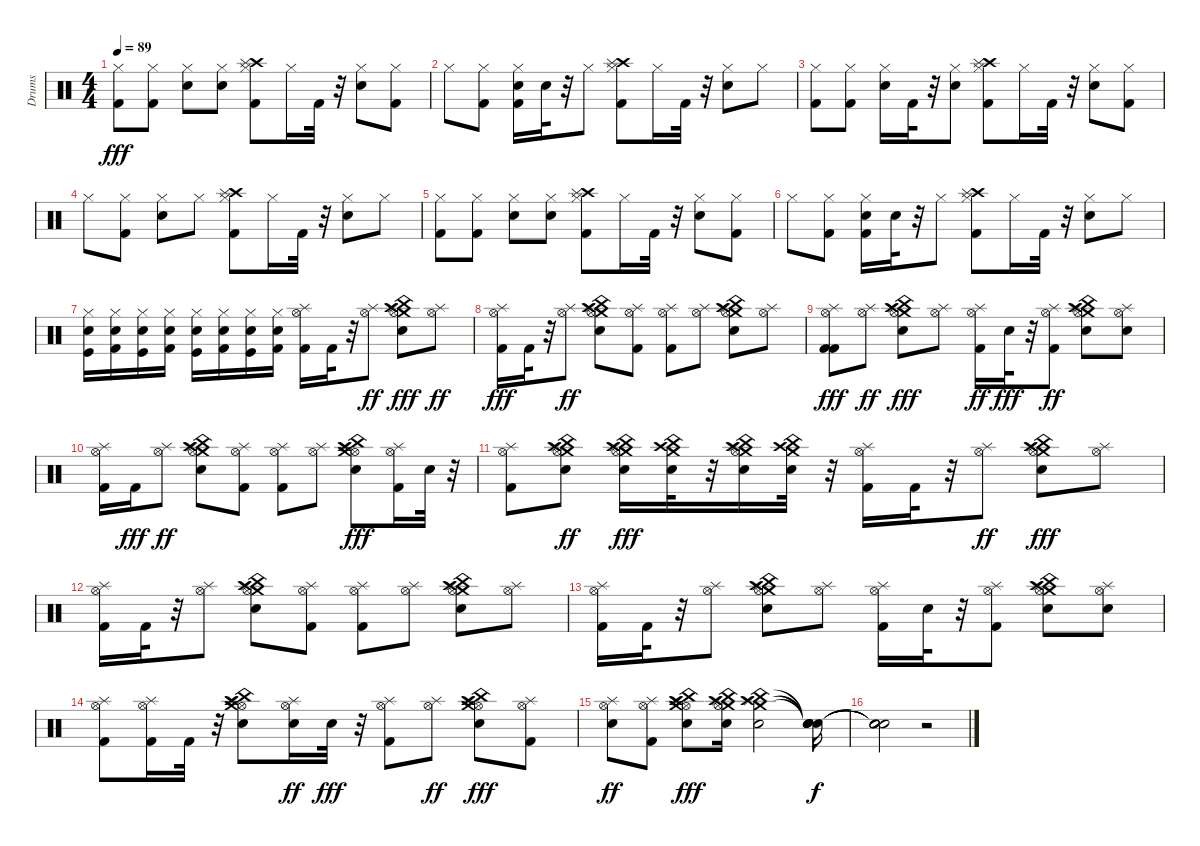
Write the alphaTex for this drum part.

\track ("Drums" "Drums") {instrument percussion}
\staff {score}
\articulation defaults
\ts (4 4)
\tempo 89
\clef neutral
\ks c
("Kick (hit) 2" "Hi-Hat (closed)").8{dy fff} ("Kick (hit) 2" "Hi-Hat (closed)").8 ("Snare (hit) 2" "Hi-Hat (closed)").8 ("Snare (hit) 2" "Hi-Hat (closed)").8 ("Crash high (hit)" "Splash (hit)" "Kick (hit) 2" "Hi-Hat (closed)").8 "Hi-Hat (closed)".16 "Kick (hit) 2".32 r.32 ("Snare (hit) 2" "Hi-Hat (closed)").8 ("Kick (hit) 2" "Hi-Hat (closed)").8 |
"Hi-Hat (closed)".8 ("Hi-Hat (closed)" "Kick (hit) 2").8 ("Snare (hit) 2" "Hi-Hat (closed)" "Kick (hit) 2").16 "Snare (hit) 2".32 r.32 "Hi-Hat (closed)".8 ("Crash high (hit)" "Splash (hit)" "Kick (hit) 2" "Hi-Hat (closed)").8 "Hi-Hat (closed)".16 "Kick (hit) 2".32 r.32 ("Snare (hit) 2" "Hi-Hat (closed)").8 "Hi-Hat (closed)".8 |
("Hi-Hat (closed)" "Kick (hit) 2").8 ("Kick (hit) 2" "Hi-Hat (closed)").8 ("Snare (hit) 2" "Hi-Hat (closed)").16 "Kick (hit) 2".32 r.32 ("Snare (hit) 2" "Hi-Hat (closed)").8 ("Crash high (hit)" "Splash (hit)" "Kick (hit) 2" "Hi-Hat (closed)").8 "Hi-Hat (closed)".16 "Kick (hit) 2".32 r.32 ("Snare (hit) 2" "Hi-Hat (closed)").8 ("Kick (hit) 2" "Hi-Hat (closed)").8 |
"Hi-Hat (closed)".8 ("Kick (hit) 2" "Hi-Hat (closed)").8 ("Hi-Hat (closed)" "Snare (hit) 2").8 "Hi-Hat (closed)".8 ("Crash high (hit)" "Splash (hit)" "Kick (hit) 2" "Hi-Hat (closed)").8 "Hi-Hat (closed)".16 "Kick (hit) 2".32 r.32 ("Snare (hit) 2" "Hi-Hat (closed)").8 "Hi-Hat (closed)".8 |
("Kick (hit) 2" "Hi-Hat (closed)").8 ("Kick (hit) 2" "Hi-Hat (closed)").8 ("Snare (hit) 2" "Hi-Hat (closed)").8 ("Snare (hit) 2" "Hi-Hat (closed)").8 ("Crash high (hit)" "Splash (hit)" "Kick (hit) 2" "Hi-Hat (closed)").8 "Hi-Hat (closed)".16 "Kick (hit) 2".32 r.32 ("Snare (hit) 2" "Hi-Hat (closed)").8 ("Kick (hit) 2" "Hi-Hat (closed)").8 |
"Hi-Hat (closed)".8 ("Kick (hit) 2" "Hi-Hat (closed)").8 ("Snare (hit) 2" "Kick (hit) 2" "Hi-Hat (closed)").16 "Snare (hit) 2".32 r.32 "Hi-Hat (closed)".8 ("Crash high (hit)" "Splash (hit)" "Kick (hit) 2" "Hi-Hat (closed)").8 "Hi-Hat (closed)".16 "Kick (hit) 2".32 r.32 ("Snare (hit) 2" "Hi-Hat (closed)").8 "Hi-Hat (closed)".8 |
("Kick (hit)" "Snare (hit) 2" "Hi-Hat (closed)").16 ("Kick (hit) 2" "Snare (hit) 2" "Hi-Hat (closed)").16 ("Kick (hit)" "Snare (hit) 2" "Hi-Hat (closed)").16 ("Kick (hit) 2" "Snare (hit) 2" "Hi-Hat (closed)").16 ("Kick (hit)" "Snare (hit) 2" "Hi-Hat (closed)").16 ("Kick (hit) 2" "Snare (hit) 2" "Hi-Hat (closed)").16 ("Kick (hit)" "Snare (hit) 2" "Hi-Hat (closed)").16 ("Kick (hit) 2" "Snare (hit) 2" "Hi-Hat (closed)").16 ("Hi-Hat (open)" "Splash (hit)" "Kick (hit) 2").16{volume 12} "Kick (hit) 2".32 r.32 ("Hi-Hat (open)" "Splash (hit)").8{dy ff} ("China (hit)" "Crash high (hit)" "Crash medium (hit)" "Hi-Hat (open)" "Splash (hit)" "Snare (hit) 2").8{dy fff} ("Hi-Hat (open)" "Splash (hit)").8{dy ff} |
("Hi-Hat (open)" "Splash (hit)" "Kick (hit) 2").16{dy fff} "Kick (hit) 2".32 r.32 ("Hi-Hat (open)" "Splash (hit)").8{dy ff} ("China (hit)" "Crash medium (hit)" "Crash high (hit)" "Hi-Hat (open)" "Snare (hit) 2" "Splash (hit)").8 ("Kick (hit) 2" "Hi-Hat (open)" "Splash (hit)").8 ("Kick (hit) 2" "Hi-Hat (open)" "Splash (hit)").8 ("Hi-Hat (open)" "Splash (hit)").8 ("China (hit)" "Crash high (hit)" "Crash medium (hit)" "Hi-Hat (open)" "Snare (hit) 2" "Splash (hit)").8 ("Hi-Hat (open)" "Splash (hit)").8 |
("Kick (hit) 2" "Hi-Hat (open)" "Splash (hit)" "Kick (hit) 2").8{dy fff} ("Hi-Hat (open)" "Splash (hit)").8{dy ff} ("China (hit)" "Snare (hit) 2" "Crash medium (hit)" "Crash high (hit)" "Hi-Hat (open)" "Splash (hit)").8{dy fff} ("Hi-Hat (open)" "Splash (hit)").8 ("Kick (hit) 2" "Hi-Hat (open)" "Splash (hit)").16{dy ff} "Snare (hit) 2".32{dy fff} r.32 ("Kick (hit) 2" "Hi-Hat (open)" "Splash (hit)").8{dy ff} ("China (hit)" "Snare (hit) 2" "Crash high (hit)" "Crash medium (hit)" "Hi-Hat (open)" "Splash (hit)").8 ("Hi-Hat (open)" "Snare (hit) 2" "Splash (hit)").8 |
("Kick (hit) 2" "Hi-Hat (open)" "Splash (hit)").16 "Kick (hit) 2".16{dy fff} ("Hi-Hat (open)" "Splash (hit)").8{dy ff} ("Snare (hit) 2" "China (hit)" "Crash medium (hit)" "Crash high (hit)" "Hi-Hat (open)" "Splash (hit)").8 ("Hi-Hat (open)" "Kick (hit) 2" "Splash (hit)").8 ("Kick (hit) 2" "Hi-Hat (open)" "Splash (hit)").8 ("Hi-Hat (open)" "Splash (hit)").8 ("Snare (hit) 2" "Crash high (hit)" "China (hit)" "Hi-Hat (open)" "Crash medium (hit)" "Splash (hit)").8{dy fff} ("Kick (hit) 2" "Hi-Hat (open)" "Splash (hit)").16 "Snare (hit) 2".32 r.32 |
("Kick (hit) 2" "Hi-Hat (open)" "Splash (hit)").8 ("Crash high (hit)" "China (hit)" "Crash medium (hit)" "Snare (hit) 2" "Hi-Hat (open)" "Splash (hit)").8{dy ff} ("Crash medium (hit)" "China (hit)" "Crash high (hit)" "Snare (hit) 2" "Hi-Hat (open)" "Splash (hit)").16{dy fff} ("Crash medium (hit)" "China (hit)" "Crash high (hit)" "Snare (hit) 2").32 r.32 ("Crash medium (hit)" "China (hit)" "Crash high (hit)" "Hi-Hat (open)" "Snare (hit) 2" "Splash (hit)").16 ("Crash medium (hit)" "China (hit)" "Snare (hit) 2" "Crash high (hit)").32 r.32 ("Hi-Hat (open)" "Splash (hit)" "Kick (hit) 2").16 "Kick (hit) 2".32 r.32 ("Hi-Hat (open)" "Splash (hit)").8{dy ff} ("China (hit)" "Crash high (hit)" "Crash medium (hit)" "Hi-Hat (open)" "Splash (hit)" "Snare (hit) 2").8{dy fff} ("Hi-Hat (open)" "Splash (hit)").8 |
("Hi-Hat (open)" "Splash (hit)" "Kick (hit) 2").16 "Kick (hit) 2".32 r.32 ("Hi-Hat (open)" "Splash (hit)").8 ("China (hit)" "Crash medium (hit)" "Crash high (hit)" "Hi-Hat (open)" "Snare (hit) 2" "Splash (hit)").8 ("Kick (hit) 2" "Hi-Hat (open)" "Splash (hit)").8 ("Kick (hit) 2" "Hi-Hat (open)" "Splash (hit)").8 ("Hi-Hat (open)" "Splash (hit)").8 ("China (hit)" "Crash high (hit)" "Crash medium (hit)" "Hi-Hat (open)" "Snare (hit) 2" "Splash (hit)").8 ("Hi-Hat (open)" "Splash (hit)").8 |
("Kick (hit) 2" "Hi-Hat (open)" "Splash (hit)").16 "Kick (hit) 2".32 r.32 ("Hi-Hat (open)" "Splash (hit)").8 ("China (hit)" "Snare (hit) 2" "Crash medium (hit)" "Crash high (hit)" "Hi-Hat (open)" "Splash (hit)").8 ("Hi-Hat (open)" "Splash (hit)").8 ("Kick (hit) 2" "Hi-Hat (open)" "Splash (hit)").16 "Snare (hit) 2".32 r.32 ("Kick (hit) 2" "Hi-Hat (open)" "Splash (hit)").8 ("Crash high (hit)" "China (hit)" "Snare (hit) 2" "Crash medium (hit)" "Hi-Hat (open)" "Splash (hit)").8 ("Hi-Hat (open)" "Snare (hit) 2" "Splash (hit)").8 |
("Kick (hit) 2" "Hi-Hat (open)" "Splash (hit)").8 ("Kick (hit) 2" "Hi-Hat (open)" "Splash (hit)").16 "Kick (hit) 2".32 r.32 ("Snare (hit) 2" "Hi-Hat (open)" "Crash high (hit)" "China (hit)" "Crash medium (hit)" "Splash (hit)").8 ("Snare (hit) 2" "Hi-Hat (open)" "Splash (hit)").16{dy ff} "Snare (hit) 2".32{dy fff} r.32 ("Kick (hit) 2" "Hi-Hat (open)" "Splash (hit)").8 ("Hi-Hat (open)" "Splash (hit)").8{dy ff} ("Snare (hit) 2" "Hi-Hat (open)" "Splash (hit)" "Crash high (hit)" "Crash medium (hit)" "China (hit)").8{dy fff} ("Kick (hit) 2" "Hi-Hat (open)" "Splash (hit)").8 |
("Snare (hit) 2" "Hi-Hat (open)" "Splash (hit)").8{dy ff} ("Kick (hit) 2" "Hi-Hat (open)" "Splash (hit)").8 ("Hi-Hat (open)" "Snare (hit) 2" "Crash high (hit)" "Crash medium (hit)" "China (hit)" "Splash (hit)").8{dy fff} ("Crash medium (hit)" "Hi-Hat (open)" "Snare (hit) 2" "Splash (hit)" "Crash high (hit)" "China (hit)").16 ("Splash (hit)" "Crash high (hit)" "China (hit)" "Crash medium (hit)" "Snare (hit) 2").2 ("Snare (hit)"{t} "Snare (hit)"{t} "Snare (hit)"{t} "Snare (hit)"{t}).16{dy f} |
("Snare (hit)"{t} "Snare (hit)"{t} "Snare (hit)"{t} "Snare (hit)"{t}).2 r.2
